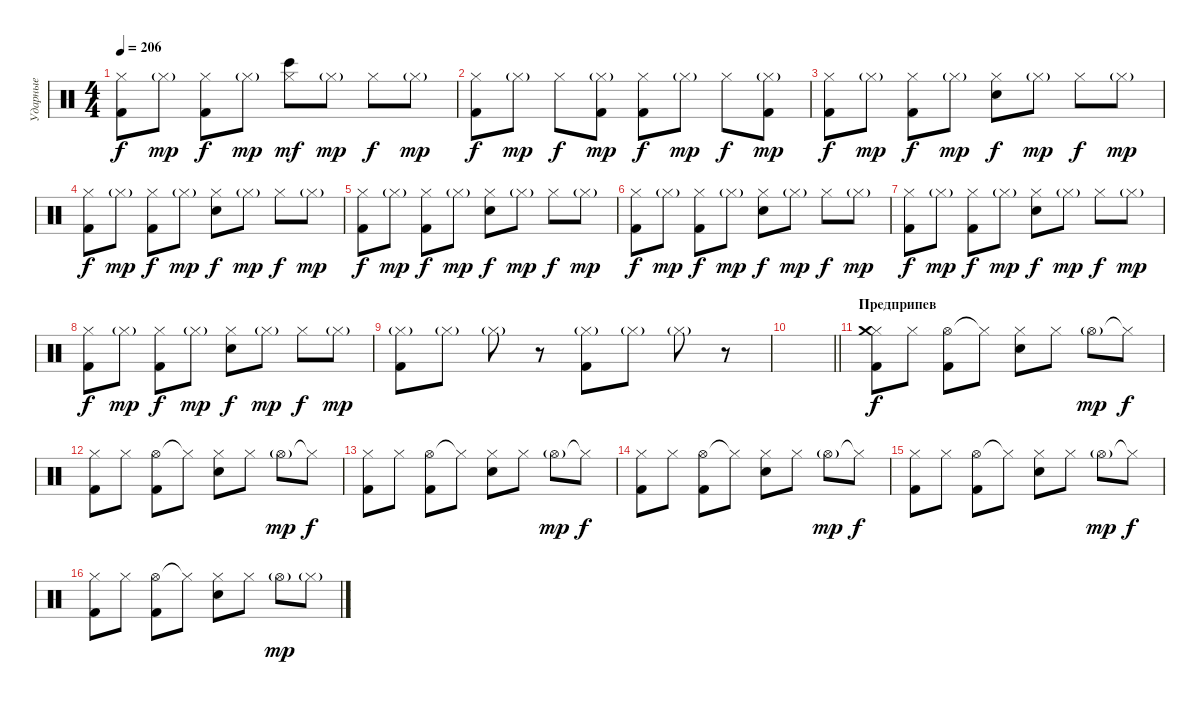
\track ("Ударные" "Ударные") {instrument percussion}
\staff {score}
\articulation defaults
\ts (4 4)
\tempo 206
\clef neutral
\ks c
("Hi-Hat (closed)" "Kick (hit) 2").8{dy f} "Hi-Hat (closed)"{g}.8{dy mp} ("Hi-Hat (closed)" "Kick (hit) 2").8{dy f} "Hi-Hat (closed)"{g}.8{dy mp} ("Hi-Hat (closed)" "Bongo High (hit)").8{dy mf} "Hi-Hat (closed)"{g}.8{dy mp} "Hi-Hat (closed)".8{dy f} "Hi-Hat (closed)"{g}.8{dy mp} |
("Hi-Hat (closed)" "Kick (hit) 2").8{dy f} "Hi-Hat (closed)"{g}.8{dy mp} "Hi-Hat (closed)".8{dy f} ("Hi-Hat (closed)"{g} "Kick (hit) 2").8{dy mp} ("Hi-Hat (closed)" "Kick (hit) 2").8{dy f} "Hi-Hat (closed)"{g}.8{dy mp} "Hi-Hat (closed)".8{dy f} ("Hi-Hat (closed)"{g} "Kick (hit) 2").8{dy mp} |
("Hi-Hat (closed)" "Kick (hit) 2").8{dy f} "Hi-Hat (closed)"{g}.8{dy mp} ("Hi-Hat (closed)" "Kick (hit) 2").8{dy f} "Hi-Hat (closed)"{g}.8{dy mp} ("Hi-Hat (closed)" "Electric Snare (hit)").8{dy f} "Hi-Hat (closed)"{g}.8{dy mp} "Hi-Hat (closed)".8{dy f} "Hi-Hat (closed)"{g}.8{dy mp} |
("Hi-Hat (closed)" "Kick (hit) 2").8{dy f} "Hi-Hat (closed)"{g}.8{dy mp} ("Hi-Hat (closed)" "Kick (hit) 2").8{dy f} "Hi-Hat (closed)"{g}.8{dy mp} ("Hi-Hat (closed)" "Electric Snare (hit)").8{dy f} "Hi-Hat (closed)"{g}.8{dy mp} "Hi-Hat (closed)".8{dy f} "Hi-Hat (closed)"{g}.8{dy mp} |
("Hi-Hat (closed)" "Kick (hit) 2").8{dy f} "Hi-Hat (closed)"{g}.8{dy mp} ("Hi-Hat (closed)" "Kick (hit) 2").8{dy f} "Hi-Hat (closed)"{g}.8{dy mp} ("Hi-Hat (closed)" "Electric Snare (hit)").8{dy f} "Hi-Hat (closed)"{g}.8{dy mp} "Hi-Hat (closed)".8{dy f} "Hi-Hat (closed)"{g}.8{dy mp} |
("Hi-Hat (closed)" "Kick (hit) 2").8{dy f} "Hi-Hat (closed)"{g}.8{dy mp} ("Hi-Hat (closed)" "Kick (hit) 2").8{dy f} "Hi-Hat (closed)"{g}.8{dy mp} ("Hi-Hat (closed)" "Electric Snare (hit)").8{dy f} "Hi-Hat (closed)"{g}.8{dy mp} "Hi-Hat (closed)".8{dy f} "Hi-Hat (closed)"{g}.8{dy mp} |
("Hi-Hat (closed)" "Kick (hit) 2").8{dy f} "Hi-Hat (closed)"{g}.8{dy mp} ("Hi-Hat (closed)" "Kick (hit) 2").8{dy f} "Hi-Hat (closed)"{g}.8{dy mp} ("Hi-Hat (closed)" "Electric Snare (hit)").8{dy f} "Hi-Hat (closed)"{g}.8{dy mp} "Hi-Hat (closed)".8{dy f} "Hi-Hat (closed)"{g}.8{dy mp} |
("Hi-Hat (closed)" "Kick (hit) 2").8{dy f} "Hi-Hat (closed)"{g}.8{dy mp} ("Hi-Hat (closed)" "Kick (hit) 2").8{dy f} "Hi-Hat (closed)"{g}.8{dy mp} ("Hi-Hat (closed)" "Electric Snare (hit)").8{dy f} "Hi-Hat (closed)"{g}.8{dy mp} "Hi-Hat (closed)".8{dy f} "Hi-Hat (closed)"{g}.8{dy mp} |
("Hi-Hat (closed)"{g} "Kick (hit) 2").8 "Hi-Hat (closed)"{g}.8 "Hi-Hat (closed)"{g}.8 r.8 ("Hi-Hat (closed)"{g} "Kick (hit) 2").8 "Hi-Hat (closed)"{g}.8 "Hi-Hat (closed)"{g}.8 r.8 |
\barLineRight lightlight
|
\section ("" "Предприпев")
("Hi-Hat (closed)" "Kick (hit) 2" "Crash medium (hit)").8{dy f} "Hi-Hat (closed)".8 ("Hi-Hat (open)" "Kick (hit) 2").8 "Hi-Hat (closed)"{t}.8 ("Hi-Hat (closed)" "Electric Snare (hit)").8 "Hi-Hat (closed)".8 "Hi-Hat (open)"{g}.8{dy mp} "Hi-Hat (closed)"{t}.8{dy f} |
("Hi-Hat (closed)" "Kick (hit) 2").8 "Hi-Hat (closed)".8 ("Hi-Hat (open)" "Kick (hit) 2").8 "Hi-Hat (closed)"{t}.8 ("Hi-Hat (closed)" "Electric Snare (hit)").8 "Hi-Hat (closed)".8 "Hi-Hat (open)"{g}.8{dy mp} "Hi-Hat (closed)"{t}.8{dy f} |
("Hi-Hat (closed)" "Kick (hit) 2").8 "Hi-Hat (closed)".8 ("Hi-Hat (open)" "Kick (hit) 2").8 "Hi-Hat (closed)"{t}.8 ("Hi-Hat (closed)" "Electric Snare (hit)").8 "Hi-Hat (closed)".8 "Hi-Hat (open)"{g}.8{dy mp} "Hi-Hat (closed)"{t}.8{dy f} |
("Hi-Hat (closed)" "Kick (hit) 2").8 "Hi-Hat (closed)".8 ("Hi-Hat (open)" "Kick (hit) 2").8 "Hi-Hat (closed)"{t}.8 ("Hi-Hat (closed)" "Electric Snare (hit)").8 "Hi-Hat (closed)".8 "Hi-Hat (open)"{g}.8{dy mp} "Hi-Hat (closed)"{t}.8{dy f} |
("Hi-Hat (closed)" "Kick (hit) 2").8 "Hi-Hat (closed)".8 ("Hi-Hat (open)" "Kick (hit) 2").8 "Hi-Hat (closed)"{t}.8 ("Hi-Hat (closed)" "Electric Snare (hit)").8 "Hi-Hat (closed)".8 "Hi-Hat (open)"{g}.8{dy mp} "Hi-Hat (closed)"{t}.8{dy f} |
("Hi-Hat (closed)" "Kick (hit) 2").8 "Hi-Hat (closed)".8 ("Hi-Hat (open)" "Kick (hit) 2").8 "Hi-Hat (closed)"{t}.8 ("Hi-Hat (closed)" "Electric Snare (hit)").8 "Hi-Hat (closed)".8 "Hi-Hat (open)"{g}.8{dy mp} "Hi-Hat (closed)"{g}.8
